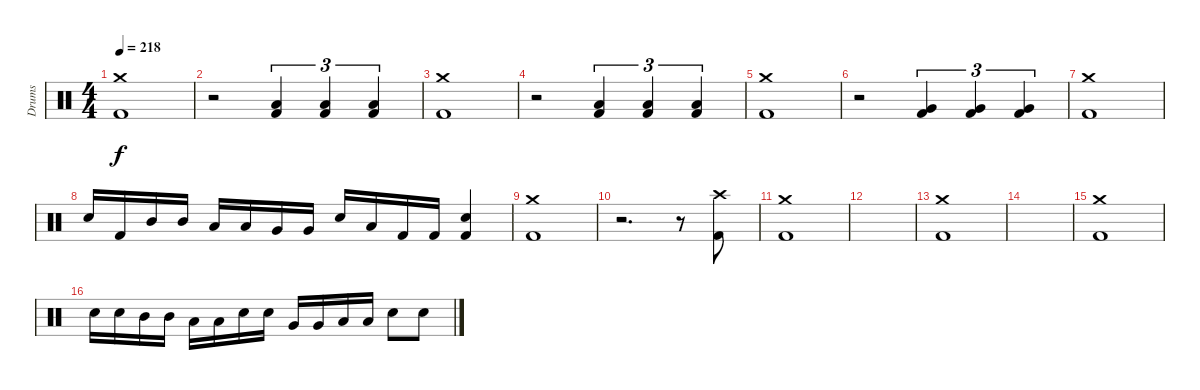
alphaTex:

\track ("Drums" "Drums") {instrument percussion}
\staff {score}
\articulation defaults
\ts (4 4)
\tempo 218
\clef neutral
\ks c
("Crash medium (hit)" "Kick (hit) 2").1{dy f} |
r.2 ("Low Floor Tom (hit)" "Kick (hit) 2").4{tu (3 2)} ("Low Floor Tom (hit)" "Kick (hit) 2").4{tu (3 2)} ("Low Floor Tom (hit)" "Kick (hit) 2").4{tu (3 2)} |
("Crash medium (hit)" "Kick (hit) 2").1 |
r.2 ("Low Tom (hit)" "Kick (hit) 2").4{tu (3 2)} ("Low Tom (hit)" "Kick (hit) 2").4{tu (3 2)} ("Low Tom (hit)" "Kick (hit) 2").4{tu (3 2)} |
("Crash medium (hit)" "Kick (hit) 2").1 |
r.2 ("Very Low Tom (hit)" "Kick (hit) 2").4{tu (3 2)} ("Very Low Tom (hit)" "Kick (hit) 2").4{tu (3 2)} ("Very Low Tom (hit)" "Kick (hit) 2").4{tu (3 2)} |
("Crash medium (hit)" "Kick (hit) 2").1 |
"Snare (hit) 2".16 "Kick (hit) 2".16 "Mid Tom (hit)".16 "Mid Tom (hit)".16 "Low Tom (hit)".16 "Low Tom (hit)".16 "Very Low Tom (hit)".16 "Very Low Tom (hit)".16 "Snare (hit) 2".16 "Low Floor Tom (hit)".16 "Kick (hit) 2".16 "Kick (hit) 2".16 ("Snare (hit) 2" "Kick (hit) 2").4 |
("Crash medium (hit)" "Kick (hit) 2").1 |
r.2{d} r.8 ("Crash high (hit)" "Kick (hit) 2").8 |
("Crash medium (hit)" "Kick (hit) 2").1 |
|
("Crash medium (hit)" "Kick (hit) 2").1 |
|
("Crash medium (hit)" "Kick (hit) 2").1 |
"Snare (hit) 2".16 "Snare (hit) 2".16 "Mid Tom (hit)".16 "Mid Tom (hit)".16 "Low Tom (hit)".16 "Low Tom (hit)".16 "Snare (hit) 2".16 "Snare (hit) 2".16 "Very Low Tom (hit)".16 "Very Low Tom (hit)".16 "Low Floor Tom (hit)".16 "Low Floor Tom (hit)".16 "Snare (hit) 2".8 "Snare (hit) 2".8
